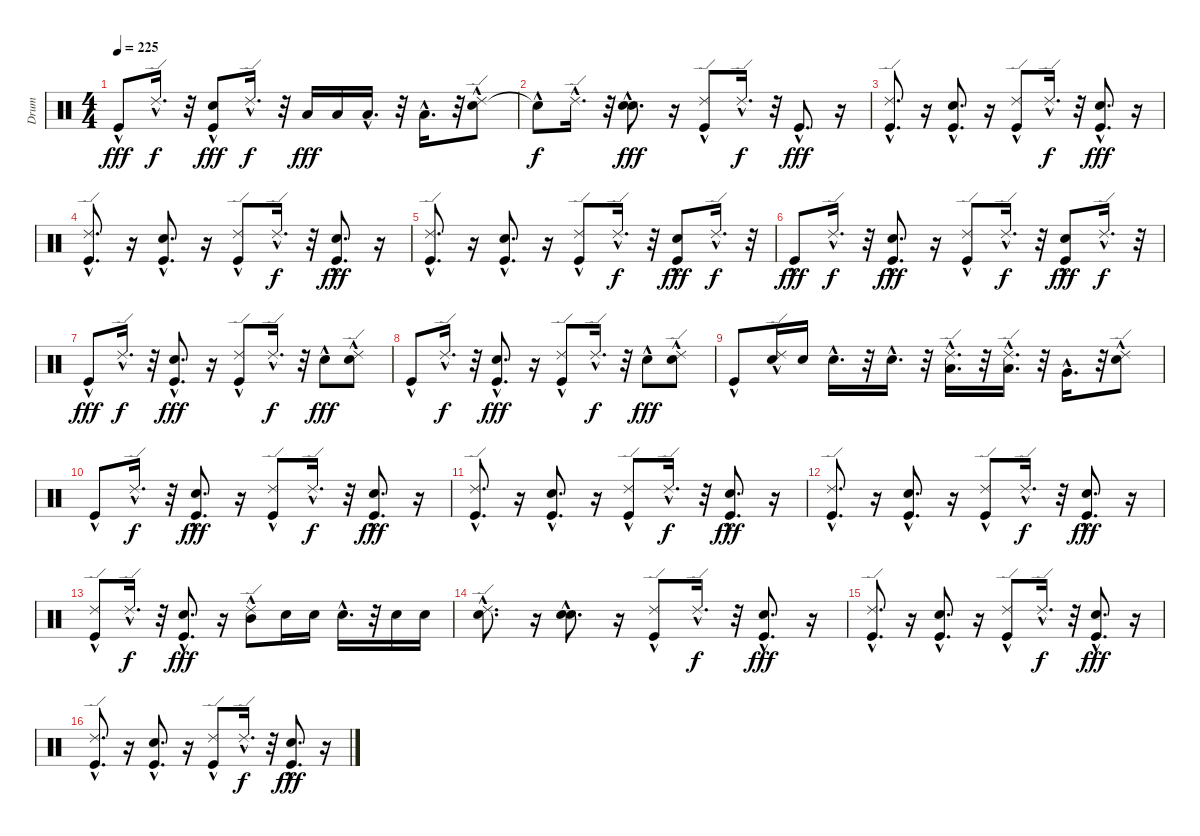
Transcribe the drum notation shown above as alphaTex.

\track ("Drum" "Drum") {instrument percussion}
\staff {score}
\articulation defaults
\ts (4 4)
\tempo 225
\clef neutral
\ks c "Kick (hit)"{hac}.8{dy fff} "Ride (edge) 2"{hac}.16{d dy f}
r.32 ("Kick (hit)"{hac} "Electric Snare (hit)"{hac}).8{dy fff} "Ride (edge) 2"{hac}.16{d dy f} r.32 "Low Tom (hit)".16{dy fff} "Low Tom (hit)".16 "Low Tom (hit)"{hac}.16{d} r.32 "Low Tom (hit)"{hac}.16{d} r.32 ("Snare (hit) 2" "Ride (edge) 2"{hac}).8 |
"Snare (hit)"{hac t}.8{dy f} "Ride (edge) 2"{hac}.16{d} r.32 ("Snare (hit) 2"{hac} "Electric Snare (hit)"{hac}).8{d dy fff} r.16 ("Kick (hit)"{hac} "Ride (edge) 2"{hac}).8 "Ride (edge) 2"{hac}.16{d dy f} r.32 "Kick (hit)"{hac}.8{d dy fff} r.16 |
("Kick (hit)"{hac} "Ride (edge) 2"{hac}).8{d} r.16 ("Kick (hit)"{hac} "Electric Snare (hit)"{hac}).8{d} r.16 ("Kick (hit)"{hac} "Ride (edge) 2"{hac}).8 "Ride (edge) 2"{hac}.16{d dy f} r.32 ("Kick (hit)"{hac} "Electric Snare (hit)"{hac}).8{d dy fff} r.16 |
("Kick (hit)"{hac} "Ride (edge) 2"{hac}).8{d} r.16 ("Kick (hit)"{hac} "Electric Snare (hit)"{hac}).8{d} r.16 ("Kick (hit)"{hac} "Ride (edge) 2"{hac}).8 "Ride (edge) 2"{hac}.16{d dy f} r.32 ("Kick (hit)"{hac} "Electric Snare (hit)"{hac}).8{d dy fff} r.16 |
("Kick (hit)"{hac} "Ride (edge) 2"{hac}).8{d} r.16 ("Kick (hit)"{hac} "Electric Snare (hit)"{hac}).8{d} r.16 ("Kick (hit)"{hac} "Ride (edge) 2"{hac}).8 "Ride (edge) 2"{hac}.16{d dy f} r.32 ("Kick (hit)"{hac} "Electric Snare (hit)"{hac}).8{dy fff} "Ride (edge) 2"{hac}.16{d dy f} r.32 |
"Kick (hit)"{hac}.8{dy fff} "Ride (edge) 2"{hac}.16{d dy f} r.32 ("Kick (hit)"{hac} "Electric Snare (hit)"{hac}).8{d dy fff} r.16 ("Kick (hit)"{hac} "Ride (edge) 2"{hac}).8 "Ride (edge) 2"{hac}.16{d dy f} r.32 ("Kick (hit)"{hac} "Electric Snare (hit)"{hac}).8{dy fff} "Ride (edge) 2"{hac}.16{d dy f} r.32 |
"Kick (hit)"{hac}.8{dy fff} "Ride (edge) 2"{hac}.16{d dy f} r.32 ("Kick (hit)"{hac} "Electric Snare (hit)"{hac}).8{d dy fff} r.16 ("Kick (hit)"{hac} "Ride (edge) 2"{hac}).8 "Ride (edge) 2"{hac}.16{d dy f} r.32 "Electric Snare (hit)"{hac}.8{dy fff} ("Snare (hit) 2" "Ride (edge) 2"{hac}).8 |
"Kick (hit)"{hac}.8 "Ride (edge) 2"{hac}.16{d dy f} r.32 ("Kick (hit)"{hac} "Electric Snare (hit)"{hac}).8{d dy fff} r.16 ("Kick (hit)"{hac} "Ride (edge) 2"{hac}).8 "Ride (edge) 2"{hac}.16{d dy f} r.32 "Electric Snare (hit)"{hac}.8{dy fff} ("Snare (hit) 2" "Ride (edge) 2"{hac}).8 |
"Kick (hit)"{hac}.8 ("Electric Snare (hit)" "Ride (edge) 2"{hac}).16 "Electric Snare (hit)".16 "Electric Snare (hit)"{hac}.16{d} r.32 "Electric Snare (hit)"{hac}.16{d} r.32 ("Low Tom (hit)"{hac} "Ride (edge) 2"{hac}).16{d} r.32 ("Low Tom (hit)"{hac} "Ride (edge) 2"{hac}).16{d} r.32 "Very Low Tom (hit)"{hac}.16{d} r.32 ("Snare (hit) 2" "Ride (edge) 2"{hac}).8 |
"Kick (hit)"{hac}.8 "Ride (edge) 2"{hac}.16{d dy f} r.32 ("Kick (hit)"{hac} "Electric Snare (hit)"{hac}).8{d dy fff} r.16 ("Kick (hit)"{hac} "Ride (edge) 2"{hac}).8 "Ride (edge) 2"{hac}.16{d dy f} r.32 ("Kick (hit)"{hac} "Electric Snare (hit)"{hac}).8{d dy fff} r.16 |
("Kick (hit)"{hac} "Ride (edge) 2"{hac}).8{d} r.16 ("Kick (hit)"{hac} "Electric Snare (hit)"{hac}).8{d} r.16 ("Kick (hit)"{hac} "Ride (edge) 2"{hac}).8 "Ride (edge) 2"{hac}.16{d dy f} r.32 ("Kick (hit)"{hac} "Electric Snare (hit)"{hac}).8{d dy fff} r.16 |
("Kick (hit)"{hac} "Ride (edge) 2"{hac}).8{d} r.16 ("Kick (hit)"{hac} "Electric Snare (hit)"{hac}).8{d} r.16 ("Kick (hit)"{hac} "Ride (edge) 2"{hac}).8 "Ride (edge) 2"{hac}.16{d dy f} r.32 ("Kick (hit)"{hac} "Electric Snare (hit)"{hac}).8{d dy fff} r.16 |
("Kick (hit)"{hac} "Ride (edge) 2"{hac}).8 "Ride (edge) 2"{hac}.16{d dy f} r.32 ("Kick (hit)"{hac} "Electric Snare (hit)"{hac}).8{d dy fff} r.16 ("Mid Tom (hit)"{hac} "Ride (edge) 2"{hac}).8 "Electric Snare (hit)".16 "Electric Snare (hit)".16 "Electric Snare (hit)"{hac}.16{d} r.32 "Electric Snare (hit)".16 "Electric Snare (hit)".16 |
("Snare (hit) 2"{hac} "Ride (edge) 2"{hac}).8{d} r.16 ("Snare (hit) 2"{hac} "Electric Snare (hit)"{hac}).8{d} r.16 ("Kick (hit)"{hac} "Ride (edge) 2"{hac}).8 "Ride (edge) 2"{hac}.16{d dy f} r.32 ("Kick (hit)"{hac} "Electric Snare (hit)"{hac}).8{d dy fff} r.16 |
("Kick (hit)"{hac} "Ride (edge) 2"{hac}).8{d} r.16 ("Kick (hit)"{hac} "Electric Snare (hit)"{hac}).8{d} r.16 ("Kick (hit)"{hac} "Ride (edge) 2"{hac}).8 "Ride (edge) 2"{hac}.16{d dy f} r.32 ("Kick (hit)"{hac} "Electric Snare (hit)"{hac}).8{d dy fff} r.16 |
("Kick (hit)"{hac} "Ride (edge) 2"{hac}).8{d} r.16 ("Kick (hit)"{hac} "Electric Snare (hit)"{hac}).8{d} r.16 ("Kick (hit)"{hac} "Ride (edge) 2"{hac}).8 "Ride (edge) 2"{hac}.16{d dy f} r.32 ("Kick (hit)"{hac} "Electric Snare (hit)"{hac}).8{d dy fff} r.16
